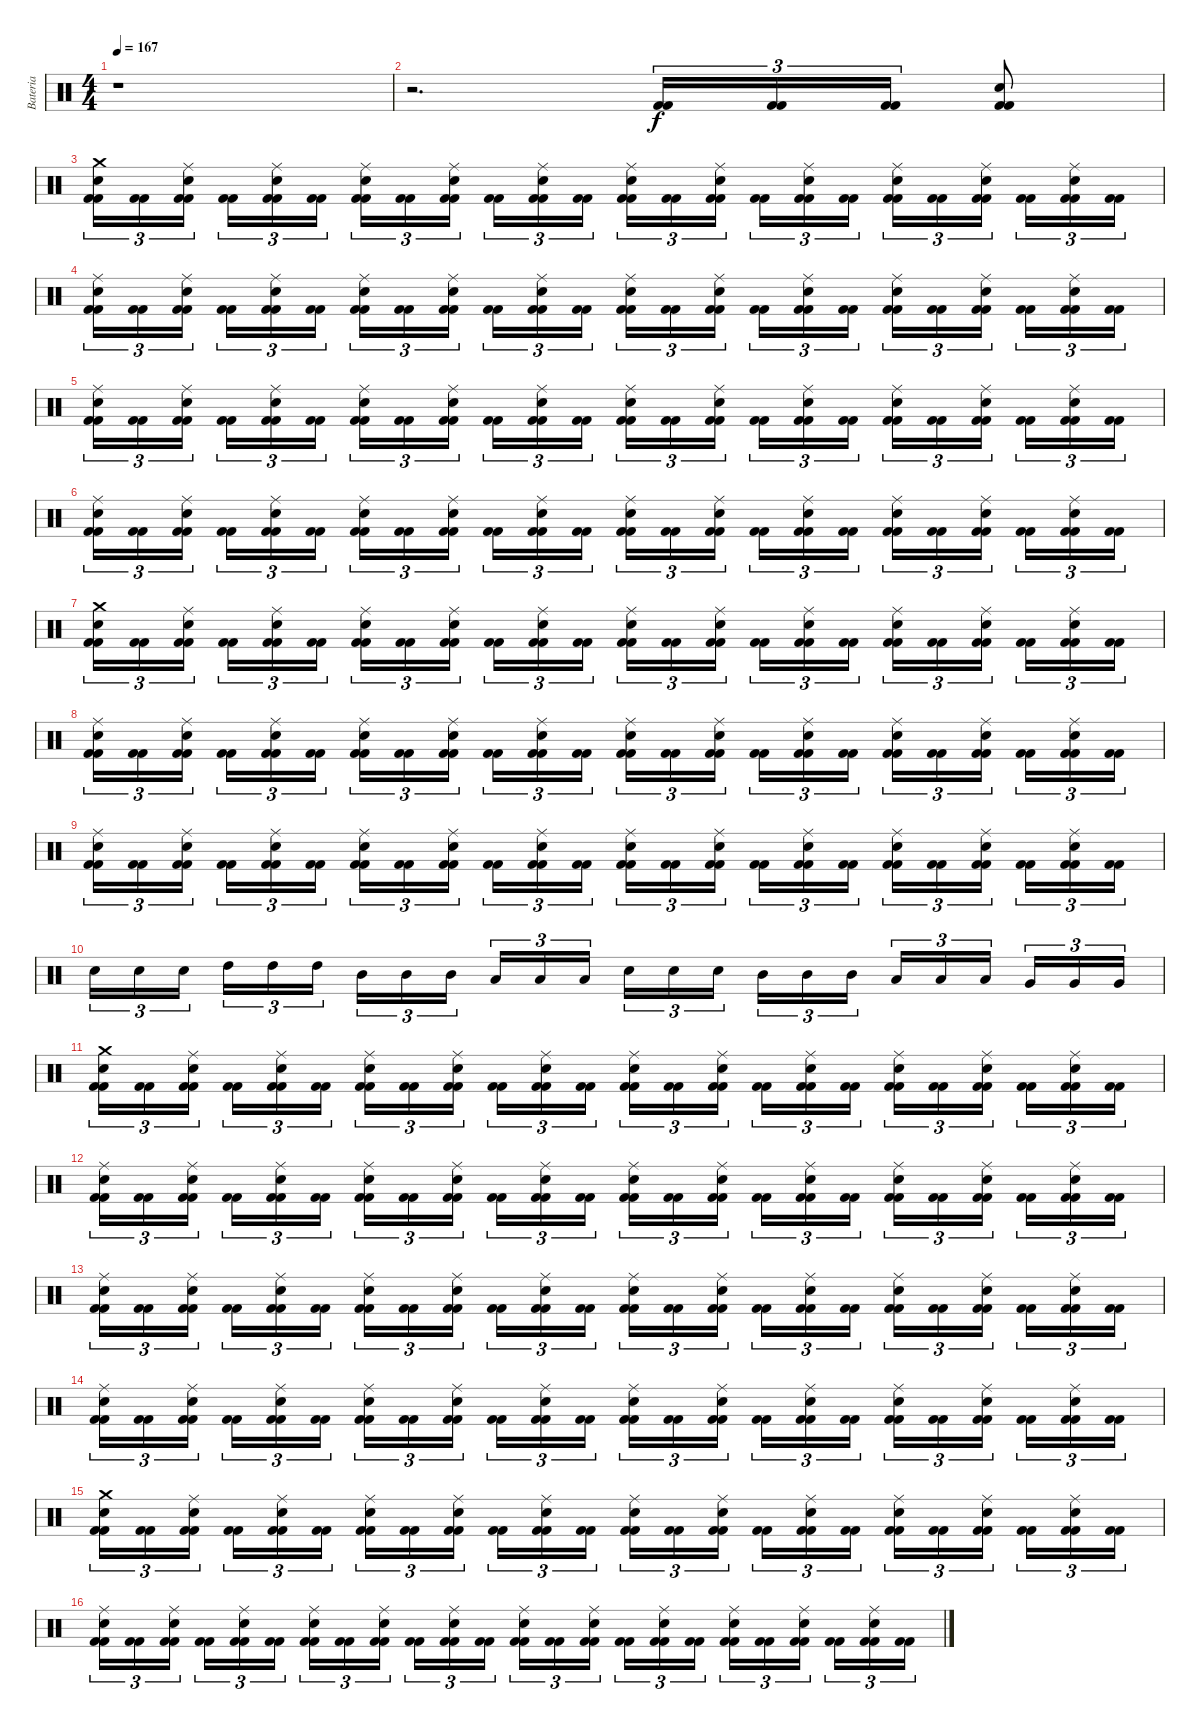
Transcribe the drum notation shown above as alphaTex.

\track ("Bateria" "Bateria") {instrument percussion}
\staff {score}
\articulation defaults
\ts (4 4)
\tempo 167
\clef neutral
\ks c
r.1{dy f} |
r.2{d} ("Kick (hit) 2" "Kick (hit) 2").16{tu (3 2)} ("Kick (hit) 2" "Kick (hit) 2").16{tu (3 2)} ("Kick (hit) 2" "Kick (hit) 2").16{tu (3 2)} ("Kick (hit) 2" "Kick (hit) 2" "Snare (hit) 2").8 |
("Kick (hit) 2" "Kick (hit) 2" "Snare (hit) 2" "Crash medium (hit)").16{tu (3 2)} ("Kick (hit) 2" "Kick (hit) 2").16{tu (3 2)} ("Kick (hit) 2" "Kick (hit) 2" "Snare (hit) 2" "Ride (middle)").16{tu (3 2)} ("Kick (hit) 2" "Kick (hit) 2").16{tu (3 2)} ("Kick (hit) 2" "Kick (hit) 2" "Snare (hit) 2" "Ride (middle)").16{tu (3 2)} ("Kick (hit) 2" "Kick (hit) 2").16{tu (3 2)} ("Kick (hit) 2" "Kick (hit) 2" "Snare (hit) 2" "Ride (middle)").16{tu (3 2)} ("Kick (hit) 2" "Kick (hit) 2").16{tu (3 2)} ("Kick (hit) 2" "Kick (hit) 2" "Snare (hit) 2" "Ride (middle)").16{tu (3 2)} ("Kick (hit) 2" "Kick (hit) 2").16{tu (3 2)} ("Kick (hit) 2" "Kick (hit) 2" "Snare (hit) 2" "Ride (middle)").16{tu (3 2)} ("Kick (hit) 2" "Kick (hit) 2").16{tu (3 2)} ("Kick (hit) 2" "Kick (hit) 2" "Snare (hit) 2" "Ride (middle)").16{tu (3 2)} ("Kick (hit) 2" "Kick (hit) 2").16{tu (3 2)} ("Kick (hit) 2" "Kick (hit) 2" "Snare (hit) 2" "Ride (middle)").16{tu (3 2)} ("Kick (hit) 2" "Kick (hit) 2").16{tu (3 2)} ("Kick (hit) 2" "Kick (hit) 2" "Snare (hit) 2" "Ride (middle)").16{tu (3 2)} ("Kick (hit) 2" "Kick (hit) 2").16{tu (3 2)} ("Kick (hit) 2" "Kick (hit) 2" "Snare (hit) 2" "Ride (middle)").16{tu (3 2)} ("Kick (hit) 2" "Kick (hit) 2").16{tu (3 2)} ("Kick (hit) 2" "Kick (hit) 2" "Snare (hit) 2" "Ride (middle)").16{tu (3 2)} ("Kick (hit) 2" "Kick (hit) 2").16{tu (3 2)} ("Kick (hit) 2" "Kick (hit) 2" "Snare (hit) 2" "Ride (middle)").16{tu (3 2)} ("Kick (hit) 2" "Kick (hit) 2").16{tu (3 2)} |
("Kick (hit) 2" "Kick (hit) 2" "Snare (hit) 2" "Ride (middle)").16{tu (3 2)} ("Kick (hit) 2" "Kick (hit) 2").16{tu (3 2)} ("Kick (hit) 2" "Kick (hit) 2" "Snare (hit) 2" "Ride (middle)").16{tu (3 2)} ("Kick (hit) 2" "Kick (hit) 2").16{tu (3 2)} ("Kick (hit) 2" "Kick (hit) 2" "Snare (hit) 2" "Ride (middle)").16{tu (3 2)} ("Kick (hit) 2" "Kick (hit) 2").16{tu (3 2)} ("Kick (hit) 2" "Kick (hit) 2" "Snare (hit) 2" "Ride (middle)").16{tu (3 2)} ("Kick (hit) 2" "Kick (hit) 2").16{tu (3 2)} ("Kick (hit) 2" "Kick (hit) 2" "Snare (hit) 2" "Ride (middle)").16{tu (3 2)} ("Kick (hit) 2" "Kick (hit) 2").16{tu (3 2)} ("Kick (hit) 2" "Kick (hit) 2" "Snare (hit) 2" "Ride (middle)").16{tu (3 2)} ("Kick (hit) 2" "Kick (hit) 2").16{tu (3 2)} ("Kick (hit) 2" "Kick (hit) 2" "Snare (hit) 2" "Ride (middle)").16{tu (3 2)} ("Kick (hit) 2" "Kick (hit) 2").16{tu (3 2)} ("Kick (hit) 2" "Kick (hit) 2" "Snare (hit) 2" "Ride (middle)").16{tu (3 2)} ("Kick (hit) 2" "Kick (hit) 2").16{tu (3 2)} ("Kick (hit) 2" "Kick (hit) 2" "Snare (hit) 2" "Ride (middle)").16{tu (3 2)} ("Kick (hit) 2" "Kick (hit) 2").16{tu (3 2)} ("Kick (hit) 2" "Kick (hit) 2" "Snare (hit) 2" "Ride (middle)").16{tu (3 2)} ("Kick (hit) 2" "Kick (hit) 2").16{tu (3 2)} ("Kick (hit) 2" "Kick (hit) 2" "Snare (hit) 2" "Ride (middle)").16{tu (3 2)} ("Kick (hit) 2" "Kick (hit) 2").16{tu (3 2)} ("Kick (hit) 2" "Kick (hit) 2" "Snare (hit) 2" "Ride (middle)").16{tu (3 2)} ("Kick (hit) 2" "Kick (hit) 2").16{tu (3 2)} |
("Kick (hit) 2" "Kick (hit) 2" "Snare (hit) 2" "Ride (middle)").16{tu (3 2)} ("Kick (hit) 2" "Kick (hit) 2").16{tu (3 2)} ("Kick (hit) 2" "Kick (hit) 2" "Snare (hit) 2" "Ride (middle)").16{tu (3 2)} ("Kick (hit) 2" "Kick (hit) 2").16{tu (3 2)} ("Kick (hit) 2" "Kick (hit) 2" "Snare (hit) 2" "Ride (middle)").16{tu (3 2)} ("Kick (hit) 2" "Kick (hit) 2").16{tu (3 2)} ("Kick (hit) 2" "Kick (hit) 2" "Snare (hit) 2" "Ride (middle)").16{tu (3 2)} ("Kick (hit) 2" "Kick (hit) 2").16{tu (3 2)} ("Kick (hit) 2" "Kick (hit) 2" "Snare (hit) 2" "Ride (middle)").16{tu (3 2)} ("Kick (hit) 2" "Kick (hit) 2").16{tu (3 2)} ("Kick (hit) 2" "Kick (hit) 2" "Snare (hit) 2" "Ride (middle)").16{tu (3 2)} ("Kick (hit) 2" "Kick (hit) 2").16{tu (3 2)} ("Kick (hit) 2" "Kick (hit) 2" "Snare (hit) 2" "Ride (middle)").16{tu (3 2)} ("Kick (hit) 2" "Kick (hit) 2").16{tu (3 2)} ("Kick (hit) 2" "Kick (hit) 2" "Snare (hit) 2" "Ride (middle)").16{tu (3 2)} ("Kick (hit) 2" "Kick (hit) 2").16{tu (3 2)} ("Kick (hit) 2" "Kick (hit) 2" "Snare (hit) 2" "Ride (middle)").16{tu (3 2)} ("Kick (hit) 2" "Kick (hit) 2").16{tu (3 2)} ("Kick (hit) 2" "Kick (hit) 2" "Snare (hit) 2" "Ride (middle)").16{tu (3 2)} ("Kick (hit) 2" "Kick (hit) 2").16{tu (3 2)} ("Kick (hit) 2" "Kick (hit) 2" "Snare (hit) 2" "Ride (middle)").16{tu (3 2)} ("Kick (hit) 2" "Kick (hit) 2").16{tu (3 2)} ("Kick (hit) 2" "Kick (hit) 2" "Snare (hit) 2" "Ride (middle)").16{tu (3 2)} ("Kick (hit) 2" "Kick (hit) 2").16{tu (3 2)} |
("Kick (hit) 2" "Kick (hit) 2" "Snare (hit) 2" "Ride (middle)").16{tu (3 2)} ("Kick (hit) 2" "Kick (hit) 2").16{tu (3 2)} ("Kick (hit) 2" "Kick (hit) 2" "Snare (hit) 2" "Ride (middle)").16{tu (3 2)} ("Kick (hit) 2" "Kick (hit) 2").16{tu (3 2)} ("Kick (hit) 2" "Kick (hit) 2" "Snare (hit) 2" "Ride (middle)").16{tu (3 2)} ("Kick (hit) 2" "Kick (hit) 2").16{tu (3 2)} ("Kick (hit) 2" "Kick (hit) 2" "Snare (hit) 2" "Ride (middle)").16{tu (3 2)} ("Kick (hit) 2" "Kick (hit) 2").16{tu (3 2)} ("Kick (hit) 2" "Kick (hit) 2" "Snare (hit) 2" "Ride (middle)").16{tu (3 2)} ("Kick (hit) 2" "Kick (hit) 2").16{tu (3 2)} ("Kick (hit) 2" "Kick (hit) 2" "Snare (hit) 2" "Ride (middle)").16{tu (3 2)} ("Kick (hit) 2" "Kick (hit) 2").16{tu (3 2)} ("Kick (hit) 2" "Kick (hit) 2" "Snare (hit) 2" "Ride (middle)").16{tu (3 2)} ("Kick (hit) 2" "Kick (hit) 2").16{tu (3 2)} ("Kick (hit) 2" "Kick (hit) 2" "Snare (hit) 2" "Ride (middle)").16{tu (3 2)} ("Kick (hit) 2" "Kick (hit) 2").16{tu (3 2)} ("Kick (hit) 2" "Kick (hit) 2" "Snare (hit) 2" "Ride (middle)").16{tu (3 2)} ("Kick (hit) 2" "Kick (hit) 2").16{tu (3 2)} ("Kick (hit) 2" "Kick (hit) 2" "Snare (hit) 2" "Ride (middle)").16{tu (3 2)} ("Kick (hit) 2" "Kick (hit) 2").16{tu (3 2)} ("Kick (hit) 2" "Kick (hit) 2" "Snare (hit) 2" "Ride (middle)").16{tu (3 2)} ("Kick (hit) 2" "Kick (hit) 2").16{tu (3 2)} ("Kick (hit) 2" "Kick (hit) 2" "Snare (hit) 2" "Ride (middle)").16{tu (3 2)} ("Kick (hit) 2" "Kick (hit) 2").16{tu (3 2)} |
("Kick (hit) 2" "Kick (hit) 2" "Snare (hit) 2" "Crash medium (hit)").16{tu (3 2)} ("Kick (hit) 2" "Kick (hit) 2").16{tu (3 2)} ("Kick (hit) 2" "Kick (hit) 2" "Snare (hit) 2" "Ride (middle)").16{tu (3 2)} ("Kick (hit) 2" "Kick (hit) 2").16{tu (3 2)} ("Kick (hit) 2" "Kick (hit) 2" "Snare (hit) 2" "Ride (middle)").16{tu (3 2)} ("Kick (hit) 2" "Kick (hit) 2").16{tu (3 2)} ("Kick (hit) 2" "Kick (hit) 2" "Snare (hit) 2" "Ride (middle)").16{tu (3 2)} ("Kick (hit) 2" "Kick (hit) 2").16{tu (3 2)} ("Kick (hit) 2" "Kick (hit) 2" "Snare (hit) 2" "Ride (middle)").16{tu (3 2)} ("Kick (hit) 2" "Kick (hit) 2").16{tu (3 2)} ("Kick (hit) 2" "Kick (hit) 2" "Snare (hit) 2" "Ride (middle)").16{tu (3 2)} ("Kick (hit) 2" "Kick (hit) 2").16{tu (3 2)} ("Kick (hit) 2" "Kick (hit) 2" "Snare (hit) 2" "Ride (middle)").16{tu (3 2)} ("Kick (hit) 2" "Kick (hit) 2").16{tu (3 2)} ("Kick (hit) 2" "Kick (hit) 2" "Snare (hit) 2" "Ride (middle)").16{tu (3 2)} ("Kick (hit) 2" "Kick (hit) 2").16{tu (3 2)} ("Kick (hit) 2" "Kick (hit) 2" "Snare (hit) 2" "Ride (middle)").16{tu (3 2)} ("Kick (hit) 2" "Kick (hit) 2").16{tu (3 2)} ("Kick (hit) 2" "Kick (hit) 2" "Snare (hit) 2" "Ride (middle)").16{tu (3 2)} ("Kick (hit) 2" "Kick (hit) 2").16{tu (3 2)} ("Kick (hit) 2" "Kick (hit) 2" "Snare (hit) 2" "Ride (middle)").16{tu (3 2)} ("Kick (hit) 2" "Kick (hit) 2").16{tu (3 2)} ("Kick (hit) 2" "Kick (hit) 2" "Snare (hit) 2" "Ride (middle)").16{tu (3 2)} ("Kick (hit) 2" "Kick (hit) 2").16{tu (3 2)} |
("Kick (hit) 2" "Kick (hit) 2" "Snare (hit) 2" "Ride (middle)").16{tu (3 2)} ("Kick (hit) 2" "Kick (hit) 2").16{tu (3 2)} ("Kick (hit) 2" "Kick (hit) 2" "Snare (hit) 2" "Ride (middle)").16{tu (3 2)} ("Kick (hit) 2" "Kick (hit) 2").16{tu (3 2)} ("Kick (hit) 2" "Kick (hit) 2" "Snare (hit) 2" "Ride (middle)").16{tu (3 2)} ("Kick (hit) 2" "Kick (hit) 2").16{tu (3 2)} ("Kick (hit) 2" "Kick (hit) 2" "Snare (hit) 2" "Ride (middle)").16{tu (3 2)} ("Kick (hit) 2" "Kick (hit) 2").16{tu (3 2)} ("Kick (hit) 2" "Kick (hit) 2" "Snare (hit) 2" "Ride (middle)").16{tu (3 2)} ("Kick (hit) 2" "Kick (hit) 2").16{tu (3 2)} ("Kick (hit) 2" "Kick (hit) 2" "Snare (hit) 2" "Ride (middle)").16{tu (3 2)} ("Kick (hit) 2" "Kick (hit) 2").16{tu (3 2)} ("Kick (hit) 2" "Kick (hit) 2" "Snare (hit) 2" "Ride (middle)").16{tu (3 2)} ("Kick (hit) 2" "Kick (hit) 2").16{tu (3 2)} ("Kick (hit) 2" "Kick (hit) 2" "Snare (hit) 2" "Ride (middle)").16{tu (3 2)} ("Kick (hit) 2" "Kick (hit) 2").16{tu (3 2)} ("Kick (hit) 2" "Kick (hit) 2" "Snare (hit) 2" "Ride (middle)").16{tu (3 2)} ("Kick (hit) 2" "Kick (hit) 2").16{tu (3 2)} ("Kick (hit) 2" "Kick (hit) 2" "Snare (hit) 2" "Ride (middle)").16{tu (3 2)} ("Kick (hit) 2" "Kick (hit) 2").16{tu (3 2)} ("Kick (hit) 2" "Kick (hit) 2" "Snare (hit) 2" "Ride (middle)").16{tu (3 2)} ("Kick (hit) 2" "Kick (hit) 2").16{tu (3 2)} ("Kick (hit) 2" "Kick (hit) 2" "Snare (hit) 2" "Ride (middle)").16{tu (3 2)} ("Kick (hit) 2" "Kick (hit) 2").16{tu (3 2)} |
("Kick (hit) 2" "Kick (hit) 2" "Snare (hit) 2" "Ride (middle)").16{tu (3 2)} ("Kick (hit) 2" "Kick (hit) 2").16{tu (3 2)} ("Kick (hit) 2" "Kick (hit) 2" "Snare (hit) 2" "Ride (middle)").16{tu (3 2)} ("Kick (hit) 2" "Kick (hit) 2").16{tu (3 2)} ("Kick (hit) 2" "Kick (hit) 2" "Snare (hit) 2" "Ride (middle)").16{tu (3 2)} ("Kick (hit) 2" "Kick (hit) 2").16{tu (3 2)} ("Kick (hit) 2" "Kick (hit) 2" "Snare (hit) 2" "Ride (middle)").16{tu (3 2)} ("Kick (hit) 2" "Kick (hit) 2").16{tu (3 2)} ("Kick (hit) 2" "Kick (hit) 2" "Snare (hit) 2" "Ride (middle)").16{tu (3 2)} ("Kick (hit) 2" "Kick (hit) 2").16{tu (3 2)} ("Kick (hit) 2" "Kick (hit) 2" "Snare (hit) 2" "Ride (middle)").16{tu (3 2)} ("Kick (hit) 2" "Kick (hit) 2").16{tu (3 2)} ("Kick (hit) 2" "Kick (hit) 2" "Snare (hit) 2" "Ride (middle)").16{tu (3 2)} ("Kick (hit) 2" "Kick (hit) 2").16{tu (3 2)} ("Kick (hit) 2" "Kick (hit) 2" "Snare (hit) 2" "Ride (middle)").16{tu (3 2)} ("Kick (hit) 2" "Kick (hit) 2").16{tu (3 2)} ("Kick (hit) 2" "Kick (hit) 2" "Snare (hit) 2" "Ride (middle)").16{tu (3 2)} ("Kick (hit) 2" "Kick (hit) 2").16{tu (3 2)} ("Kick (hit) 2" "Kick (hit) 2" "Snare (hit) 2" "Ride (middle)").16{tu (3 2)} ("Kick (hit) 2" "Kick (hit) 2").16{tu (3 2)} ("Kick (hit) 2" "Kick (hit) 2" "Snare (hit) 2" "Ride (middle)").16{tu (3 2)} ("Kick (hit) 2" "Kick (hit) 2").16{tu (3 2)} ("Kick (hit) 2" "Kick (hit) 2" "Snare (hit) 2" "Ride (middle)").16{tu (3 2)} ("Kick (hit) 2" "Kick (hit) 2").16{tu (3 2)} |
"Snare (hit) 2".16{tu (3 2)} "Snare (hit) 2".16{tu (3 2)} "Snare (hit) 2".16{tu (3 2)} "High Tom (hit)".16{tu (3 2)} "High Tom (hit)".16{tu (3 2)} "High Tom (hit)".16{tu (3 2)} "Mid Tom (hit)".16{tu (3 2)} "Mid Tom (hit)".16{tu (3 2)} "Mid Tom (hit)".16{tu (3 2)} "Low Tom (hit)".16{tu (3 2)} "Low Tom (hit)".16{tu (3 2)} "Low Tom (hit)".16{tu (3 2)} "Snare (hit) 2".16{tu (3 2)} "Snare (hit) 2".16{tu (3 2)} "Snare (hit) 2".16{tu (3 2)} "Mid Tom (hit)".16{tu (3 2)} "Mid Tom (hit)".16{tu (3 2)} "Mid Tom (hit)".16{tu (3 2)} "Low Tom (hit)".16{tu (3 2)} "Low Tom (hit)".16{tu (3 2)} "Low Tom (hit)".16{tu (3 2)} "Very Low Tom (hit)".16{tu (3 2)} "Very Low Tom (hit)".16{tu (3 2)} "Very Low Tom (hit)".16{tu (3 2)} |
("Kick (hit) 2" "Kick (hit) 2" "Snare (hit) 2" "Crash medium (hit)").16{tu (3 2)} ("Kick (hit) 2" "Kick (hit) 2").16{tu (3 2)} ("Kick (hit) 2" "Kick (hit) 2" "Snare (hit) 2" "Ride (middle)").16{tu (3 2)} ("Kick (hit) 2" "Kick (hit) 2").16{tu (3 2)} ("Kick (hit) 2" "Kick (hit) 2" "Snare (hit) 2" "Ride (middle)").16{tu (3 2)} ("Kick (hit) 2" "Kick (hit) 2").16{tu (3 2)} ("Kick (hit) 2" "Kick (hit) 2" "Snare (hit) 2" "Ride (middle)").16{tu (3 2)} ("Kick (hit) 2" "Kick (hit) 2").16{tu (3 2)} ("Kick (hit) 2" "Kick (hit) 2" "Snare (hit) 2" "Ride (middle)").16{tu (3 2)} ("Kick (hit) 2" "Kick (hit) 2").16{tu (3 2)} ("Kick (hit) 2" "Kick (hit) 2" "Snare (hit) 2" "Ride (middle)").16{tu (3 2)} ("Kick (hit) 2" "Kick (hit) 2").16{tu (3 2)} ("Kick (hit) 2" "Kick (hit) 2" "Snare (hit) 2" "Ride (middle)").16{tu (3 2)} ("Kick (hit) 2" "Kick (hit) 2").16{tu (3 2)} ("Kick (hit) 2" "Kick (hit) 2" "Snare (hit) 2" "Ride (middle)").16{tu (3 2)} ("Kick (hit) 2" "Kick (hit) 2").16{tu (3 2)} ("Kick (hit) 2" "Kick (hit) 2" "Snare (hit) 2" "Ride (middle)").16{tu (3 2)} ("Kick (hit) 2" "Kick (hit) 2").16{tu (3 2)} ("Kick (hit) 2" "Kick (hit) 2" "Snare (hit) 2" "Ride (middle)").16{tu (3 2)} ("Kick (hit) 2" "Kick (hit) 2").16{tu (3 2)} ("Kick (hit) 2" "Kick (hit) 2" "Snare (hit) 2" "Ride (middle)").16{tu (3 2)} ("Kick (hit) 2" "Kick (hit) 2").16{tu (3 2)} ("Kick (hit) 2" "Kick (hit) 2" "Snare (hit) 2" "Ride (middle)").16{tu (3 2)} ("Kick (hit) 2" "Kick (hit) 2").16{tu (3 2)} |
("Kick (hit) 2" "Kick (hit) 2" "Snare (hit) 2" "Ride (middle)").16{tu (3 2)} ("Kick (hit) 2" "Kick (hit) 2").16{tu (3 2)} ("Kick (hit) 2" "Kick (hit) 2" "Snare (hit) 2" "Ride (middle)").16{tu (3 2)} ("Kick (hit) 2" "Kick (hit) 2").16{tu (3 2)} ("Kick (hit) 2" "Kick (hit) 2" "Snare (hit) 2" "Ride (middle)").16{tu (3 2)} ("Kick (hit) 2" "Kick (hit) 2").16{tu (3 2)} ("Kick (hit) 2" "Kick (hit) 2" "Snare (hit) 2" "Ride (middle)").16{tu (3 2)} ("Kick (hit) 2" "Kick (hit) 2").16{tu (3 2)} ("Kick (hit) 2" "Kick (hit) 2" "Snare (hit) 2" "Ride (middle)").16{tu (3 2)} ("Kick (hit) 2" "Kick (hit) 2").16{tu (3 2)} ("Kick (hit) 2" "Kick (hit) 2" "Snare (hit) 2" "Ride (middle)").16{tu (3 2)} ("Kick (hit) 2" "Kick (hit) 2").16{tu (3 2)} ("Kick (hit) 2" "Kick (hit) 2" "Snare (hit) 2" "Ride (middle)").16{tu (3 2)} ("Kick (hit) 2" "Kick (hit) 2").16{tu (3 2)} ("Kick (hit) 2" "Kick (hit) 2" "Snare (hit) 2" "Ride (middle)").16{tu (3 2)} ("Kick (hit) 2" "Kick (hit) 2").16{tu (3 2)} ("Kick (hit) 2" "Kick (hit) 2" "Snare (hit) 2" "Ride (middle)").16{tu (3 2)} ("Kick (hit) 2" "Kick (hit) 2").16{tu (3 2)} ("Kick (hit) 2" "Kick (hit) 2" "Snare (hit) 2" "Ride (middle)").16{tu (3 2)} ("Kick (hit) 2" "Kick (hit) 2").16{tu (3 2)} ("Kick (hit) 2" "Kick (hit) 2" "Snare (hit) 2" "Ride (middle)").16{tu (3 2)} ("Kick (hit) 2" "Kick (hit) 2").16{tu (3 2)} ("Kick (hit) 2" "Kick (hit) 2" "Snare (hit) 2" "Ride (middle)").16{tu (3 2)} ("Kick (hit) 2" "Kick (hit) 2").16{tu (3 2)} |
("Kick (hit) 2" "Kick (hit) 2" "Snare (hit) 2" "Ride (middle)").16{tu (3 2)} ("Kick (hit) 2" "Kick (hit) 2").16{tu (3 2)} ("Kick (hit) 2" "Kick (hit) 2" "Snare (hit) 2" "Ride (middle)").16{tu (3 2)} ("Kick (hit) 2" "Kick (hit) 2").16{tu (3 2)} ("Kick (hit) 2" "Kick (hit) 2" "Snare (hit) 2" "Ride (middle)").16{tu (3 2)} ("Kick (hit) 2" "Kick (hit) 2").16{tu (3 2)} ("Kick (hit) 2" "Kick (hit) 2" "Snare (hit) 2" "Ride (middle)").16{tu (3 2)} ("Kick (hit) 2" "Kick (hit) 2").16{tu (3 2)} ("Kick (hit) 2" "Kick (hit) 2" "Snare (hit) 2" "Ride (middle)").16{tu (3 2)} ("Kick (hit) 2" "Kick (hit) 2").16{tu (3 2)} ("Kick (hit) 2" "Kick (hit) 2" "Snare (hit) 2" "Ride (middle)").16{tu (3 2)} ("Kick (hit) 2" "Kick (hit) 2").16{tu (3 2)} ("Kick (hit) 2" "Kick (hit) 2" "Snare (hit) 2" "Ride (middle)").16{tu (3 2)} ("Kick (hit) 2" "Kick (hit) 2").16{tu (3 2)} ("Kick (hit) 2" "Kick (hit) 2" "Snare (hit) 2" "Ride (middle)").16{tu (3 2)} ("Kick (hit) 2" "Kick (hit) 2").16{tu (3 2)} ("Kick (hit) 2" "Kick (hit) 2" "Snare (hit) 2" "Ride (middle)").16{tu (3 2)} ("Kick (hit) 2" "Kick (hit) 2").16{tu (3 2)} ("Kick (hit) 2" "Kick (hit) 2" "Snare (hit) 2" "Ride (middle)").16{tu (3 2)} ("Kick (hit) 2" "Kick (hit) 2").16{tu (3 2)} ("Kick (hit) 2" "Kick (hit) 2" "Snare (hit) 2" "Ride (middle)").16{tu (3 2)} ("Kick (hit) 2" "Kick (hit) 2").16{tu (3 2)} ("Kick (hit) 2" "Kick (hit) 2" "Snare (hit) 2" "Ride (middle)").16{tu (3 2)} ("Kick (hit) 2" "Kick (hit) 2").16{tu (3 2)} |
("Kick (hit) 2" "Kick (hit) 2" "Snare (hit) 2" "Ride (middle)").16{tu (3 2)} ("Kick (hit) 2" "Kick (hit) 2").16{tu (3 2)} ("Kick (hit) 2" "Kick (hit) 2" "Snare (hit) 2" "Ride (middle)").16{tu (3 2)} ("Kick (hit) 2" "Kick (hit) 2").16{tu (3 2)} ("Kick (hit) 2" "Kick (hit) 2" "Snare (hit) 2" "Ride (middle)").16{tu (3 2)} ("Kick (hit) 2" "Kick (hit) 2").16{tu (3 2)} ("Kick (hit) 2" "Kick (hit) 2" "Snare (hit) 2" "Ride (middle)").16{tu (3 2)} ("Kick (hit) 2" "Kick (hit) 2").16{tu (3 2)} ("Kick (hit) 2" "Kick (hit) 2" "Snare (hit) 2" "Ride (middle)").16{tu (3 2)} ("Kick (hit) 2" "Kick (hit) 2").16{tu (3 2)} ("Kick (hit) 2" "Kick (hit) 2" "Snare (hit) 2" "Ride (middle)").16{tu (3 2)} ("Kick (hit) 2" "Kick (hit) 2").16{tu (3 2)} ("Kick (hit) 2" "Kick (hit) 2" "Snare (hit) 2" "Ride (middle)").16{tu (3 2)} ("Kick (hit) 2" "Kick (hit) 2").16{tu (3 2)} ("Kick (hit) 2" "Kick (hit) 2" "Snare (hit) 2" "Ride (middle)").16{tu (3 2)} ("Kick (hit) 2" "Kick (hit) 2").16{tu (3 2)} ("Kick (hit) 2" "Kick (hit) 2" "Snare (hit) 2" "Ride (middle)").16{tu (3 2)} ("Kick (hit) 2" "Kick (hit) 2").16{tu (3 2)} ("Kick (hit) 2" "Kick (hit) 2" "Snare (hit) 2" "Ride (middle)").16{tu (3 2)} ("Kick (hit) 2" "Kick (hit) 2").16{tu (3 2)} ("Kick (hit) 2" "Kick (hit) 2" "Snare (hit) 2" "Ride (middle)").16{tu (3 2)} ("Kick (hit) 2" "Kick (hit) 2").16{tu (3 2)} ("Kick (hit) 2" "Kick (hit) 2" "Snare (hit) 2" "Ride (middle)").16{tu (3 2)} ("Kick (hit) 2" "Kick (hit) 2").16{tu (3 2)} |
("Kick (hit) 2" "Kick (hit) 2" "Snare (hit) 2" "Crash medium (hit)").16{tu (3 2)} ("Kick (hit) 2" "Kick (hit) 2").16{tu (3 2)} ("Kick (hit) 2" "Kick (hit) 2" "Snare (hit) 2" "Ride (middle)").16{tu (3 2)} ("Kick (hit) 2" "Kick (hit) 2").16{tu (3 2)} ("Kick (hit) 2" "Kick (hit) 2" "Snare (hit) 2" "Ride (middle)").16{tu (3 2)} ("Kick (hit) 2" "Kick (hit) 2").16{tu (3 2)} ("Kick (hit) 2" "Kick (hit) 2" "Snare (hit) 2" "Ride (middle)").16{tu (3 2)} ("Kick (hit) 2" "Kick (hit) 2").16{tu (3 2)} ("Kick (hit) 2" "Kick (hit) 2" "Snare (hit) 2" "Ride (middle)").16{tu (3 2)} ("Kick (hit) 2" "Kick (hit) 2").16{tu (3 2)} ("Kick (hit) 2" "Kick (hit) 2" "Snare (hit) 2" "Ride (middle)").16{tu (3 2)} ("Kick (hit) 2" "Kick (hit) 2").16{tu (3 2)} ("Kick (hit) 2" "Kick (hit) 2" "Snare (hit) 2" "Ride (middle)").16{tu (3 2)} ("Kick (hit) 2" "Kick (hit) 2").16{tu (3 2)} ("Kick (hit) 2" "Kick (hit) 2" "Snare (hit) 2" "Ride (middle)").16{tu (3 2)} ("Kick (hit) 2" "Kick (hit) 2").16{tu (3 2)} ("Kick (hit) 2" "Kick (hit) 2" "Snare (hit) 2" "Ride (middle)").16{tu (3 2)} ("Kick (hit) 2" "Kick (hit) 2").16{tu (3 2)} ("Kick (hit) 2" "Kick (hit) 2" "Snare (hit) 2" "Ride (middle)").16{tu (3 2)} ("Kick (hit) 2" "Kick (hit) 2").16{tu (3 2)} ("Kick (hit) 2" "Kick (hit) 2" "Snare (hit) 2" "Ride (middle)").16{tu (3 2)} ("Kick (hit) 2" "Kick (hit) 2").16{tu (3 2)} ("Kick (hit) 2" "Kick (hit) 2" "Snare (hit) 2" "Ride (middle)").16{tu (3 2)} ("Kick (hit) 2" "Kick (hit) 2").16{tu (3 2)} |
("Kick (hit) 2" "Kick (hit) 2" "Snare (hit) 2" "Ride (middle)").16{tu (3 2)} ("Kick (hit) 2" "Kick (hit) 2").16{tu (3 2)} ("Kick (hit) 2" "Kick (hit) 2" "Snare (hit) 2" "Ride (middle)").16{tu (3 2)} ("Kick (hit) 2" "Kick (hit) 2").16{tu (3 2)} ("Kick (hit) 2" "Kick (hit) 2" "Snare (hit) 2" "Ride (middle)").16{tu (3 2)} ("Kick (hit) 2" "Kick (hit) 2").16{tu (3 2)} ("Kick (hit) 2" "Kick (hit) 2" "Snare (hit) 2" "Ride (middle)").16{tu (3 2)} ("Kick (hit) 2" "Kick (hit) 2").16{tu (3 2)} ("Kick (hit) 2" "Kick (hit) 2" "Snare (hit) 2" "Ride (middle)").16{tu (3 2)} ("Kick (hit) 2" "Kick (hit) 2").16{tu (3 2)} ("Kick (hit) 2" "Kick (hit) 2" "Snare (hit) 2" "Ride (middle)").16{tu (3 2)} ("Kick (hit) 2" "Kick (hit) 2").16{tu (3 2)} ("Kick (hit) 2" "Kick (hit) 2" "Snare (hit) 2" "Ride (middle)").16{tu (3 2)} ("Kick (hit) 2" "Kick (hit) 2").16{tu (3 2)} ("Kick (hit) 2" "Kick (hit) 2" "Snare (hit) 2" "Ride (middle)").16{tu (3 2)} ("Kick (hit) 2" "Kick (hit) 2").16{tu (3 2)} ("Kick (hit) 2" "Kick (hit) 2" "Snare (hit) 2" "Ride (middle)").16{tu (3 2)} ("Kick (hit) 2" "Kick (hit) 2").16{tu (3 2)} ("Kick (hit) 2" "Kick (hit) 2" "Snare (hit) 2" "Ride (middle)").16{tu (3 2)} ("Kick (hit) 2" "Kick (hit) 2").16{tu (3 2)} ("Kick (hit) 2" "Kick (hit) 2" "Snare (hit) 2" "Ride (middle)").16{tu (3 2)} ("Kick (hit) 2" "Kick (hit) 2").16{tu (3 2)} ("Kick (hit) 2" "Kick (hit) 2" "Snare (hit) 2" "Ride (middle)").16{tu (3 2)} ("Kick (hit) 2" "Kick (hit) 2").16{tu (3 2)}
